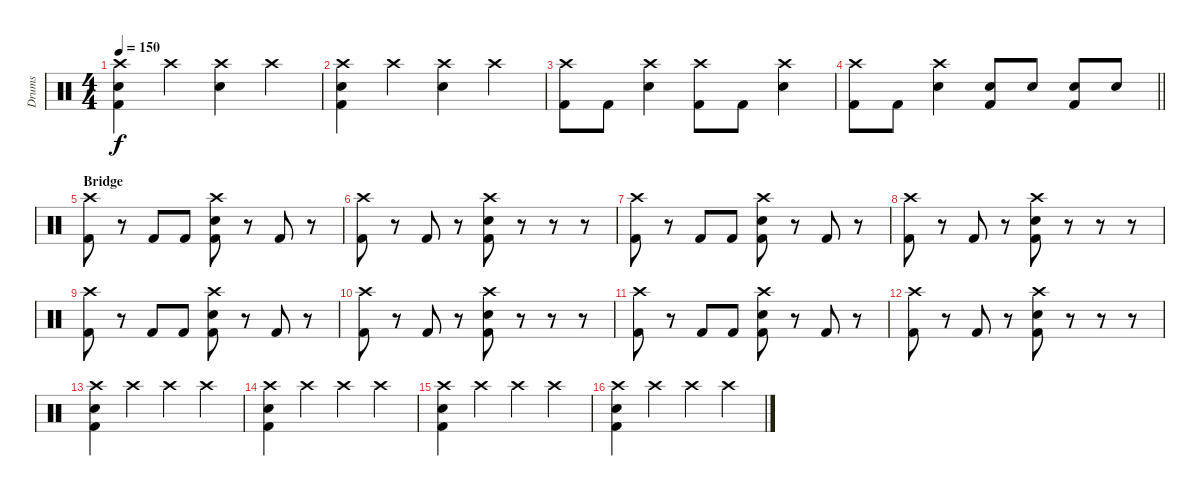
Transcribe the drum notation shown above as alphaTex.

\track ("Drums" "Drums") {instrument percussion}
\staff {score}
\articulation defaults
\ts (4 4)
\tempo 150
\clef neutral
\ks c
("Crash high (hit)" "Electric Snare (hit)" "Kick (hit) 2").4{dy f} "Crash high (hit)".4 ("Crash high (hit)" "Electric Snare (hit)").4 "Crash high (hit)".4 |
("Crash high (hit)" "Electric Snare (hit)" "Kick (hit) 2").4 "Crash high (hit)".4 ("Crash high (hit)" "Electric Snare (hit)").4 "Crash high (hit)".4 |
("Crash high (hit)" "Kick (hit) 2").8 "Kick (hit) 2".8 ("Crash high (hit)" "Electric Snare (hit)").4 ("Crash high (hit)" "Kick (hit) 2").8 "Kick (hit) 2".8 ("Crash high (hit)" "Electric Snare (hit)").4 |
\barLineRight lightlight
("Crash high (hit)" "Kick (hit) 2").8 "Kick (hit) 2".8 ("Crash high (hit)" "Electric Snare (hit)").4 ("Electric Snare (hit)" "Kick (hit) 2").8 "Electric Snare (hit)".8 ("Electric Snare (hit)" "Kick (hit) 2").8 "Electric Snare (hit)".8 |
\section ("" "Bridge")
("Crash high (hit)" "Kick (hit) 2").8 r.8 "Kick (hit) 2".8 "Kick (hit) 2".8 ("Crash high (hit)" "Electric Snare (hit)" "Kick (hit) 2").8 r.8 "Kick (hit) 2".8 r.8 |
("Crash high (hit)" "Kick (hit) 2").8 r.8 "Kick (hit) 2".8 r.8 ("Crash high (hit)" "Electric Snare (hit)" "Kick (hit) 2").8 r.8 r.8 r.8 |
("Crash high (hit)" "Kick (hit) 2").8 r.8 "Kick (hit) 2".8 "Kick (hit) 2".8 ("Crash high (hit)" "Electric Snare (hit)" "Kick (hit) 2").8 r.8 "Kick (hit) 2".8 r.8 |
("Crash high (hit)" "Kick (hit) 2").8 r.8 "Kick (hit) 2".8 r.8 ("Crash high (hit)" "Electric Snare (hit)" "Kick (hit) 2").8 r.8 r.8 r.8 |
("Crash high (hit)" "Kick (hit) 2").8 r.8 "Kick (hit) 2".8 "Kick (hit) 2".8 ("Crash high (hit)" "Electric Snare (hit)" "Kick (hit) 2").8 r.8 "Kick (hit) 2".8 r.8 |
("Crash high (hit)" "Kick (hit) 2").8 r.8 "Kick (hit) 2".8 r.8 ("Crash high (hit)" "Electric Snare (hit)" "Kick (hit) 2").8 r.8 r.8 r.8 |
("Crash high (hit)" "Kick (hit) 2").8 r.8 "Kick (hit) 2".8 "Kick (hit) 2".8 ("Crash high (hit)" "Electric Snare (hit)" "Kick (hit) 2").8 r.8 "Kick (hit) 2".8 r.8 |
("Crash high (hit)" "Kick (hit) 2").8 r.8 "Kick (hit) 2".8 r.8 ("Crash high (hit)" "Electric Snare (hit)" "Kick (hit) 2").8 r.8 r.8 r.8 |
("Crash high (hit)" "Electric Snare (hit)" "Kick (hit) 2").4 "Crash high (hit)".4 "Crash high (hit)".4 "Crash high (hit)".4 |
("Crash high (hit)" "Electric Snare (hit)" "Kick (hit) 2").4 "Crash high (hit)".4 "Crash high (hit)".4 "Crash high (hit)".4 |
("Crash high (hit)" "Electric Snare (hit)" "Kick (hit) 2").4 "Crash high (hit)".4 "Crash high (hit)".4 "Crash high (hit)".4 |
("Crash high (hit)" "Electric Snare (hit)" "Kick (hit) 2").4 "Crash high (hit)".4 "Crash high (hit)".4 "Crash high (hit)".4
